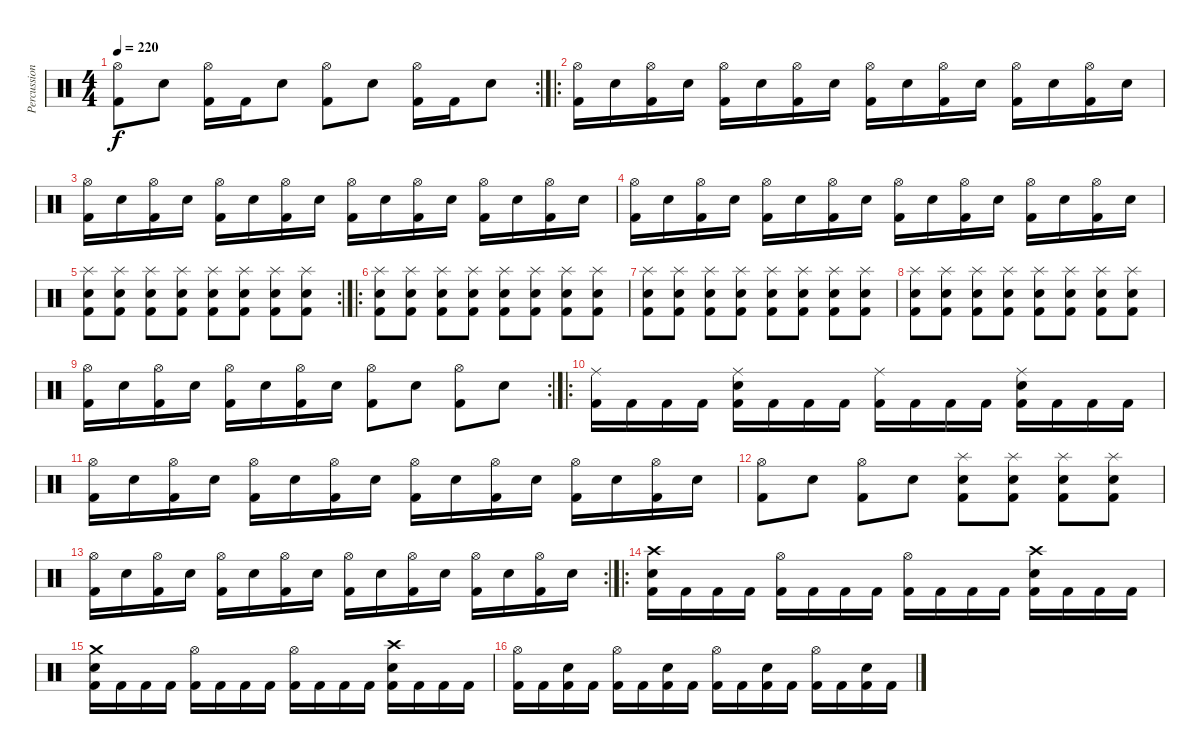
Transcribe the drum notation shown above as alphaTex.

\track ("Percussions" "Percussion") {instrument percussion}
\staff {score}
\articulation defaults
\rc 2
\ts (4 4)
\tempo 220
\clef neutral
\ks c
("Hi-Hat (open)" "Kick (hit) 2").8{dy f} "Snare (hit) 2".8 ("Hi-Hat (open)" "Kick (hit) 2").16 "Kick (hit) 2".16 "Snare (hit) 2".8 ("Hi-Hat (open)" "Kick (hit) 2").8 "Snare (hit) 2".8 ("Hi-Hat (open)" "Kick (hit) 2").16 "Kick (hit) 2".16 "Snare (hit) 2".8 |
\ro
("Hi-Hat (open)" "Kick (hit) 2").16 "Snare (hit) 2".16 ("Hi-Hat (open)" "Kick (hit) 2").16 "Snare (hit) 2".16 ("Hi-Hat (open)" "Kick (hit) 2").16 "Snare (hit) 2".16 ("Hi-Hat (open)" "Kick (hit) 2").16 "Snare (hit) 2".16 ("Hi-Hat (open)" "Kick (hit) 2").16 "Snare (hit) 2".16 ("Hi-Hat (open)" "Kick (hit) 2").16 "Snare (hit) 2".16 ("Hi-Hat (open)" "Kick (hit) 2").16 "Snare (hit) 2".16 ("Hi-Hat (open)" "Kick (hit) 2").16 "Snare (hit) 2".16 |
("Hi-Hat (open)" "Kick (hit) 2").16 "Snare (hit) 2".16 ("Hi-Hat (open)" "Kick (hit) 2").16 "Snare (hit) 2".16 ("Hi-Hat (open)" "Kick (hit) 2").16 "Snare (hit) 2".16 ("Hi-Hat (open)" "Kick (hit) 2").16 "Snare (hit) 2".16 ("Hi-Hat (open)" "Kick (hit) 2").16 "Snare (hit) 2".16 ("Hi-Hat (open)" "Kick (hit) 2").16 "Snare (hit) 2".16 ("Hi-Hat (open)" "Kick (hit) 2").16 "Snare (hit) 2".16 ("Hi-Hat (open)" "Kick (hit) 2").16 "Snare (hit) 2".16 |
("Hi-Hat (open)" "Kick (hit) 2").16 "Snare (hit) 2".16 ("Hi-Hat (open)" "Kick (hit) 2").16 "Snare (hit) 2".16 ("Hi-Hat (open)" "Kick (hit) 2").16 "Snare (hit) 2".16 ("Hi-Hat (open)" "Kick (hit) 2").16 "Snare (hit) 2".16 ("Hi-Hat (open)" "Kick (hit) 2").16 "Snare (hit) 2".16 ("Hi-Hat (open)" "Kick (hit) 2").16 "Snare (hit) 2".16 ("Hi-Hat (open)" "Kick (hit) 2").16 "Snare (hit) 2".16 ("Hi-Hat (open)" "Kick (hit) 2").16 "Snare (hit) 2".16 |
\rc 2
("Splash (hit)" "Snare (hit) 2" "Kick (hit) 2").8 ("Splash (hit)" "Snare (hit) 2" "Kick (hit) 2").8 ("Splash (hit)" "Snare (hit) 2" "Kick (hit) 2").8 ("Splash (hit)" "Snare (hit) 2" "Kick (hit) 2").8 ("Splash (hit)" "Snare (hit) 2" "Kick (hit) 2").8 ("Splash (hit)" "Snare (hit) 2" "Kick (hit) 2").8 ("Splash (hit)" "Snare (hit) 2" "Kick (hit) 2").8 ("Splash (hit)" "Snare (hit) 2" "Kick (hit) 2").8 |
\ro
("Splash (hit)" "Snare (hit) 2" "Kick (hit) 2").8 ("Splash (hit)" "Snare (hit) 2" "Kick (hit) 2").8 ("Splash (hit)" "Snare (hit) 2" "Kick (hit) 2").8 ("Splash (hit)" "Snare (hit) 2" "Kick (hit) 2").8 ("Splash (hit)" "Snare (hit) 2" "Kick (hit) 2").8 ("Splash (hit)" "Snare (hit) 2" "Kick (hit) 2").8 ("Splash (hit)" "Snare (hit) 2" "Kick (hit) 2").8 ("Splash (hit)" "Snare (hit) 2" "Kick (hit) 2").8 |
("Splash (hit)" "Snare (hit) 2" "Kick (hit) 2").8 ("Splash (hit)" "Snare (hit) 2" "Kick (hit) 2").8 ("Splash (hit)" "Snare (hit) 2" "Kick (hit) 2").8 ("Splash (hit)" "Snare (hit) 2" "Kick (hit) 2").8 ("Splash (hit)" "Snare (hit) 2" "Kick (hit) 2").8 ("Splash (hit)" "Snare (hit) 2" "Kick (hit) 2").8 ("Splash (hit)" "Snare (hit) 2" "Kick (hit) 2").8 ("Splash (hit)" "Snare (hit) 2" "Kick (hit) 2").8 |
("Splash (hit)" "Snare (hit) 2" "Kick (hit) 2").8 ("Splash (hit)" "Snare (hit) 2" "Kick (hit) 2").8 ("Splash (hit)" "Snare (hit) 2" "Kick (hit) 2").8 ("Splash (hit)" "Snare (hit) 2" "Kick (hit) 2").8 ("Splash (hit)" "Snare (hit) 2" "Kick (hit) 2").8 ("Splash (hit)" "Snare (hit) 2" "Kick (hit) 2").8 ("Splash (hit)" "Snare (hit) 2" "Kick (hit) 2").8 ("Splash (hit)" "Snare (hit) 2" "Kick (hit) 2").8 |
\rc 2
("Hi-Hat (open)" "Kick (hit) 2").16 "Snare (hit) 2".16 ("Hi-Hat (open)" "Kick (hit) 2").16 "Snare (hit) 2".16 ("Hi-Hat (open)" "Kick (hit) 2").16 "Snare (hit) 2".16 ("Hi-Hat (open)" "Kick (hit) 2").16 "Snare (hit) 2".16 ("Hi-Hat (open)" "Kick (hit) 2").8 "Snare (hit) 2".8 ("Hi-Hat (open)" "Kick (hit) 2").8 "Snare (hit) 2".8 |
\ro
("Ride (middle)" "Kick (hit) 2").16 "Kick (hit) 2".16 "Kick (hit) 2".16 "Kick (hit) 2".16 ("Ride (middle)" "Snare (hit) 2" "Kick (hit) 2").16 "Kick (hit) 2".16 "Kick (hit) 2".16 "Kick (hit) 2".16 ("Ride (middle)" "Kick (hit) 2").16 "Kick (hit) 2".16 "Kick (hit) 2".16 "Kick (hit) 2".16 ("Ride (middle)" "Snare (hit) 2" "Kick (hit) 2").16 "Kick (hit) 2".16 "Kick (hit) 2".16 "Kick (hit) 2".16 |
("Hi-Hat (open)" "Kick (hit) 2").16 "Snare (hit) 2".16 ("Hi-Hat (open)" "Kick (hit) 2").16 "Snare (hit) 2".16 ("Hi-Hat (open)" "Kick (hit) 2").16 "Snare (hit) 2".16 ("Hi-Hat (open)" "Kick (hit) 2").16 "Snare (hit) 2".16 ("Hi-Hat (open)" "Kick (hit) 2").16 "Snare (hit) 2".16 ("Hi-Hat (open)" "Kick (hit) 2").16 "Snare (hit) 2".16 ("Hi-Hat (open)" "Kick (hit) 2").16 "Snare (hit) 2".16 ("Hi-Hat (open)" "Kick (hit) 2").16 "Snare (hit) 2".16 |
("Hi-Hat (open)" "Kick (hit) 2").8 "Snare (hit) 2".8 ("Hi-Hat (open)" "Kick (hit) 2").8 "Snare (hit) 2".8 ("Splash (hit)" "Snare (hit) 2" "Kick (hit) 2").8 ("Splash (hit)" "Snare (hit) 2" "Kick (hit) 2").8 ("Splash (hit)" "Snare (hit) 2" "Kick (hit) 2").8 ("Splash (hit)" "Snare (hit) 2" "Kick (hit) 2").8 |
\rc 2
("Hi-Hat (open)" "Kick (hit) 2").16 "Snare (hit) 2".16 ("Hi-Hat (open)" "Kick (hit) 2").16 "Snare (hit) 2".16 ("Hi-Hat (open)" "Kick (hit) 2").16 "Snare (hit) 2".16 ("Hi-Hat (open)" "Kick (hit) 2").16 "Snare (hit) 2".16 ("Hi-Hat (open)" "Kick (hit) 2").16 "Snare (hit) 2".16 ("Hi-Hat (open)" "Kick (hit) 2").16 "Snare (hit) 2".16 ("Hi-Hat (open)" "Kick (hit) 2").16 "Snare (hit) 2".16 ("Hi-Hat (open)" "Kick (hit) 2").16 "Snare (hit) 2".16 |
\ro
("Crash high (hit)" "Snare (hit) 2" "Kick (hit) 2").16 "Kick (hit) 2".16 "Kick (hit) 2".16 "Kick (hit) 2".16 ("Hi-Hat (open)" "Kick (hit) 2").16 "Kick (hit) 2".16 "Kick (hit) 2".16 "Kick (hit) 2".16 ("Hi-Hat (open)" "Kick (hit) 2").16 "Kick (hit) 2".16 "Kick (hit) 2".16 "Kick (hit) 2".16 ("Crash high (hit)" "Snare (hit) 2" "Kick (hit) 2").16 "Kick (hit) 2".16 "Kick (hit) 2".16 "Kick (hit) 2".16 |
("Crash medium (hit)" "Snare (hit) 2" "Kick (hit) 2").16 "Kick (hit) 2".16 "Kick (hit) 2".16 "Kick (hit) 2".16 ("Hi-Hat (open)" "Kick (hit) 2").16 "Kick (hit) 2".16 "Kick (hit) 2".16 "Kick (hit) 2".16 ("Hi-Hat (open)" "Kick (hit) 2").16 "Kick (hit) 2".16 "Kick (hit) 2".16 "Kick (hit) 2".16 ("Crash high (hit)" "Snare (hit) 2" "Kick (hit) 2").16 "Kick (hit) 2".16 "Kick (hit) 2".16 "Kick (hit) 2".16 |
("Hi-Hat (open)" "Kick (hit) 2").16 "Kick (hit) 2".16 ("Snare (hit) 2" "Kick (hit) 2").16 "Kick (hit) 2".16 ("Hi-Hat (open)" "Kick (hit) 2").16 "Kick (hit) 2".16 ("Snare (hit) 2" "Kick (hit) 2").16 "Kick (hit) 2".16 ("Hi-Hat (open)" "Kick (hit) 2").16 "Kick (hit) 2".16 ("Snare (hit) 2" "Kick (hit) 2").16 "Kick (hit) 2".16 ("Hi-Hat (open)" "Kick (hit) 2").16 "Kick (hit) 2".16 ("Snare (hit) 2" "Kick (hit) 2").16 "Kick (hit) 2".16
